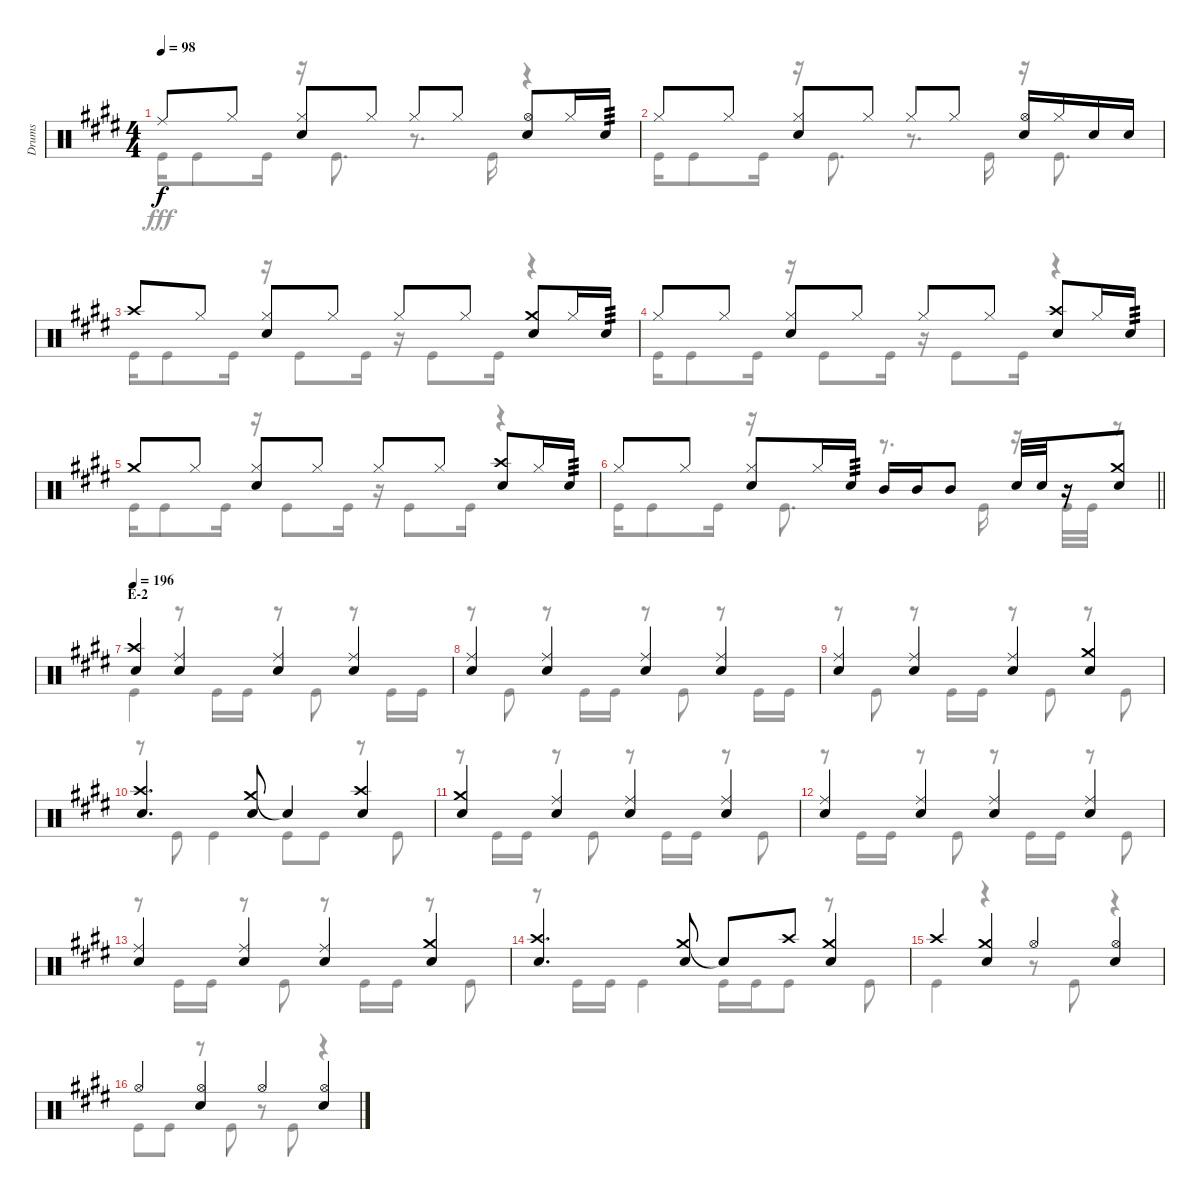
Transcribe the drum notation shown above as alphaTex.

\track ("Drums" "Drums") {instrument percussion}
\staff {score}
\articulation defaults
\voice
\ts (4 4)
\tempo 98
\clef neutral
\ks e "Ride (middle)".8{dy f} "Hi-Hat (closed)".8
("Hi-Hat (closed)" "Snare (hit) 2").8 "Hi-Hat (closed)".8 "Hi-Hat (closed)".8 "Hi-Hat (closed)".8 ("Hi-Hat (open)" "Snare (hit) 2").8 "Hi-Hat (closed)".16 "Snare (hit) 2".16{tp 3} |
"Hi-Hat (closed)".8 "Hi-Hat (closed)".8 ("Hi-Hat (closed)" "Snare (hit) 2").8 "Hi-Hat (closed)".8 "Hi-Hat (closed)".8 "Hi-Hat (closed)".8 ("Hi-Hat (open)" "Snare (hit) 2").16 "Hi-Hat (closed)".16 "Snare (hit) 2".16 "Snare (hit) 2".16 |
"Crash high (hit)".8 "Hi-Hat (closed)".8 ("Hi-Hat (closed)" "Snare (hit) 2").8 "Hi-Hat (closed)".8 "Hi-Hat (closed)".8 "Hi-Hat (closed)".8 ("Crash medium (hit)" "Snare (hit) 2").8 "Hi-Hat (closed)".16 "Snare (hit) 2".16{tp 3} |
"Hi-Hat (closed)".8 "Hi-Hat (closed)".8 ("Hi-Hat (closed)" "Snare (hit) 2").8 "Hi-Hat (closed)".8 "Hi-Hat (closed)".8 "Hi-Hat (closed)".8 ("Crash high (hit)" "Snare (hit) 2").8 "Hi-Hat (closed)".16 "Snare (hit) 2".16{tp 3} |
"Crash medium (hit)".8 "Hi-Hat (closed)".8 ("Hi-Hat (closed)" "Snare (hit) 2").8 "Hi-Hat (closed)".8 "Hi-Hat (closed)".8 "Hi-Hat (closed)".8 ("Crash high (hit)" "Snare (hit) 2").8 "Hi-Hat (closed)".16 "Snare (hit) 2".16{tp 3} |
\barLineRight lightlight "Hi-Hat (closed)".8 "Hi-Hat (closed)".8
("Hi-Hat (closed)" "Snare (hit) 2").8 "Hi-Hat (closed)".16 "Snare (hit) 2".16{tp 3} "Mid Tom (hit)".16 "Mid Tom (hit)".16 "Mid Tom (hit)".8 "Snare (hit) 2".32 "Snare (hit) 2".32 r.16 ("Crash medium (hit)" "Snare (hit) 2").8 |
\section ("" "E-2")
\tempo 196
("Crash high (hit)" "Snare (hit) 2").4 ("Ride (middle)" "Snare (hit) 2").4 ("Ride (middle)" "Snare (hit) 2").4 ("Ride (middle)" "Snare (hit) 2").4 |
("Ride (middle)" "Snare (hit) 2").4 ("Ride (middle)" "Snare (hit) 2").4 ("Ride (middle)" "Snare (hit) 2").4 ("Ride (middle)" "Snare (hit) 2").4 |
("Ride (middle)" "Snare (hit) 2").4 ("Ride (middle)" "Snare (hit) 2").4 ("Ride (middle)" "Snare (hit) 2").4 ("Crash medium (hit)" "Snare (hit) 2").4 |
("Crash high (hit)" "Snare (hit) 2").4{d} ("Crash medium (hit)" "Snare (hit) 2").8 "Snare (hit)"{t}.4 ("Crash high (hit)" "Snare (hit) 2").4 |
("Crash medium (hit)" "Snare (hit) 2").4 ("Ride (middle)" "Snare (hit) 2").4 ("Ride (middle)" "Snare (hit) 2").4 ("Ride (middle)" "Snare (hit) 2").4 |
("Ride (middle)" "Snare (hit) 2").4 ("Ride (middle)" "Snare (hit) 2").4 ("Ride (middle)" "Snare (hit) 2").4 ("Ride (middle)" "Snare (hit) 2").4 |
("Ride (middle)" "Snare (hit) 2").4 ("Ride (middle)" "Snare (hit) 2").4 ("Ride (middle)" "Snare (hit) 2").4 ("Crash medium (hit)" "Snare (hit) 2").4 |
("Crash high (hit)" "Snare (hit) 2").4{d} ("Crash medium (hit)" "Snare (hit) 2").8 "Snare (hit)"{t}.8 "Crash high (hit)".8 ("Crash medium (hit)" "Snare (hit) 2").4 |
"Crash high (hit)".4 ("Crash medium (hit)" "Snare (hit) 2").4 "Hi-Hat (open)".4 ("Hi-Hat (open)" "Snare (hit) 2").4 |
"Hi-Hat (open)".4 ("Hi-Hat (open)" "Snare (hit) 2").4 "Hi-Hat (open)".4 ("Hi-Hat (open)" "Snare (hit) 2").4
\voice
\clef neutral
\ottava regular
\simile none
\ks e "Kick (hit)".16{dy fff} "Kick (hit)".8 "Kick (hit)".16
r.16 "Kick (hit)".8{d} r.8{d} "Kick (hit)".16 r.4 |
"Kick (hit)".16 "Kick (hit)".8 "Kick (hit)".16 r.16 "Kick (hit)".8{d} r.8{d} "Kick (hit)".16 r.16 "Kick (hit)".8{d} |
"Kick (hit)".16 "Kick (hit)".8 "Kick (hit)".16 r.16 "Kick (hit)".8 "Kick (hit)".16 r.16 "Kick (hit)".8 "Kick (hit)".16 r.4 |
"Kick (hit)".16 "Kick (hit)".8 "Kick (hit)".16 r.16 "Kick (hit)".8 "Kick (hit)".16 r.16 "Kick (hit)".8 "Kick (hit)".16 r.4 |
"Kick (hit)".16 "Kick (hit)".8 "Kick (hit)".16 r.16 "Kick (hit)".8 "Kick (hit)".16 r.16 "Kick (hit)".8 "Kick (hit)".16 r.4 |
\barLineRight lightlight "Kick (hit)".16 "Kick (hit)".8 "Kick (hit)".16
r.16 "Kick (hit)".8{d} r.8{d} "Kick (hit)".16 r.16 "Kick (hit)".32 "Kick (hit)".32 r.8 |
"Kick (hit)".4 r.8 "Kick (hit)".16 "Kick (hit)".16 r.8 "Kick (hit)".8 r.8 "Kick (hit)".16 "Kick (hit)".16 |
r.8 "Kick (hit)".8 r.8 "Kick (hit)".16 "Kick (hit)".16 r.8 "Kick (hit)".8 r.8 "Kick (hit)".16 "Kick (hit)".16 |
r.8 "Kick (hit)".8 r.8 "Kick (hit)".16 "Kick (hit)".16 r.8 "Kick (hit)".8 r.8 "Kick (hit)".8 |
r.8 "Kick (hit)".8 "Kick (hit)".4 "Kick (hit)".8 "Kick (hit)".8 r.8 "Kick (hit)".8 |
r.8 "Kick (hit)".16 "Kick (hit)".16 r.8 "Kick (hit)".8 r.8 "Kick (hit)".16 "Kick (hit)".16 r.8 "Kick (hit)".8 |
r.8 "Kick (hit)".16 "Kick (hit)".16 r.8 "Kick (hit)".8 r.8 "Kick (hit)".16 "Kick (hit)".16 r.8 "Kick (hit)".8 |
r.8 "Kick (hit)".16 "Kick (hit)".16 r.8 "Kick (hit)".8 r.8 "Kick (hit)".16 "Kick (hit)".16 r.8 "Kick (hit)".8 |
r.8 "Kick (hit)".16 "Kick (hit)".16 "Kick (hit)".4 "Kick (hit)".16 "Kick (hit)".16 "Kick (hit)".8 r.8 "Kick (hit)".8 |
"Kick (hit)".4 r.4 r.8 "Kick (hit)".8 r.4 |
"Kick (hit)".8 "Kick (hit)".8 r.8 "Kick (hit)".8 r.8 "Kick (hit)".8 r.4
